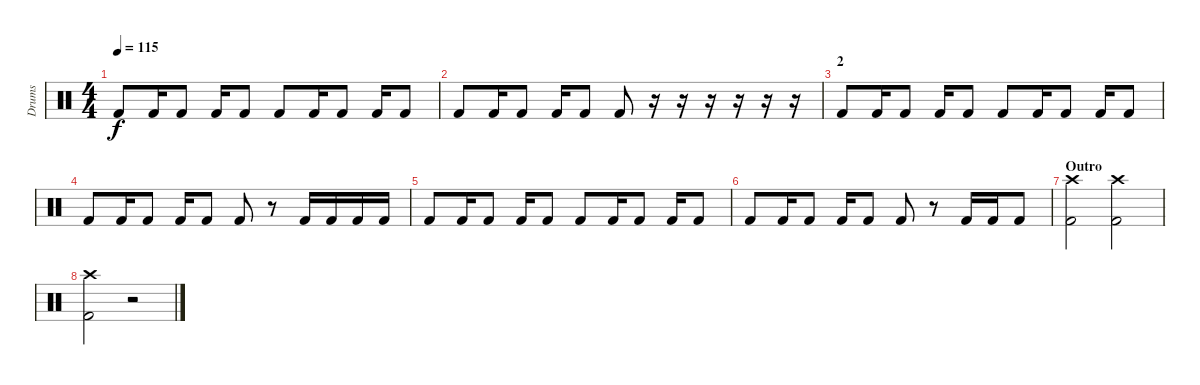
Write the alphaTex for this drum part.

\track ("Drums" "Drums") {instrument percussion}
\staff {score}
\articulation defaults
\ts (4 4)
\tempo 115
\clef neutral
\ks c "Kick (hit) 2".8{dy f} "Kick (hit) 2".16 "Kick (hit) 2".8 "Kick (hit) 2".16 "Kick (hit) 2".8 "Kick (hit) 2".8 "Kick (hit) 2".16 "Kick (hit) 2".8 "Kick (hit) 2".16 "Kick (hit) 2".8
|
"Kick (hit) 2".8 "Kick (hit) 2".16 "Kick (hit) 2".8 "Kick (hit) 2".16 "Kick (hit) 2".8 "Kick (hit) 2".8 r.16 r.16 r.16 r.16 r.16 r.16 |
\section ("" "2")
"Kick (hit) 2".8 "Kick (hit) 2".16 "Kick (hit) 2".8 "Kick (hit) 2".16 "Kick (hit) 2".8 "Kick (hit) 2".8 "Kick (hit) 2".16 "Kick (hit) 2".8 "Kick (hit) 2".16 "Kick (hit) 2".8 |
"Kick (hit) 2".8 "Kick (hit) 2".16 "Kick (hit) 2".8 "Kick (hit) 2".16 "Kick (hit) 2".8 "Kick (hit) 2".8 r.8 "Kick (hit) 2".16 "Kick (hit) 2".16 "Kick (hit) 2".16 "Kick (hit) 2".16 |
"Kick (hit) 2".8 "Kick (hit) 2".16 "Kick (hit) 2".8 "Kick (hit) 2".16 "Kick (hit) 2".8 "Kick (hit) 2".8 "Kick (hit) 2".16 "Kick (hit) 2".8 "Kick (hit) 2".16 "Kick (hit) 2".8 |
"Kick (hit) 2".8 "Kick (hit) 2".16 "Kick (hit) 2".8 "Kick (hit) 2".16 "Kick (hit) 2".8 "Kick (hit) 2".8 r.8 "Kick (hit) 2".16 "Kick (hit) 2".16 "Kick (hit) 2".8 |
\section ("" "Outro")
("Crash high (hit)" "Kick (hit) 2").2 ("Crash high (hit)" "Kick (hit) 2").2 |
("Crash high (hit)" "Kick (hit) 2").2 r.2
